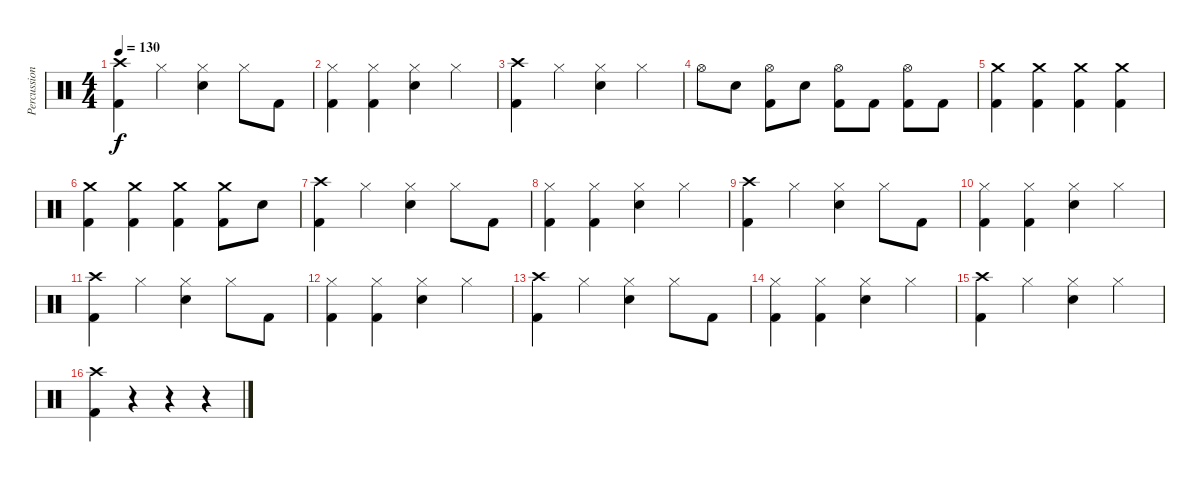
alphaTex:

\track ("Percussion" "Percussion") {instrument percussion}
\staff {score}
\articulation defaults
\ts (4 4)
\tempo 130
\clef neutral
\ks c
("Crash high (hit)" "Kick (hit) 2").4{dy f} "Hi-Hat (closed)".4 ("Hi-Hat (closed)" "Snare (hit) 2").4 "Hi-Hat (closed)".8 "Kick (hit) 2".8 |
("Hi-Hat (closed)" "Kick (hit) 2").4 ("Hi-Hat (closed)" "Kick (hit) 2").4 ("Hi-Hat (closed)" "Snare (hit) 2").4 "Hi-Hat (closed)".4 |
("Kick (hit) 2" "Crash high (hit)").4 "Hi-Hat (closed)".4 ("Hi-Hat (closed)" "Snare (hit) 2").4 "Hi-Hat (closed)".4 |
"Hi-Hat (open)".8 "Snare (hit) 2".8 ("Hi-Hat (open)" "Kick (hit) 2").8 "Snare (hit) 2".8 ("Hi-Hat (open)" "Kick (hit) 2").8 "Kick (hit) 2".8 ("Kick (hit) 2" "Hi-Hat (open)").8 "Kick (hit) 2".8 |
("Crash medium (hit)" "Kick (hit) 2").4 ("Crash medium (hit)" "Kick (hit) 2").4 ("Crash medium (hit)" "Kick (hit) 2").4 ("Crash medium (hit)" "Kick (hit) 2").4 |
("Crash medium (hit)" "Kick (hit) 2").4 ("Crash medium (hit)" "Kick (hit) 2").4 ("Crash medium (hit)" "Kick (hit) 2").4 ("Crash medium (hit)" "Kick (hit) 2").8 "Snare (hit) 2".8 |
("Crash high (hit)" "Kick (hit) 2").4 "Hi-Hat (closed)".4 ("Hi-Hat (closed)" "Snare (hit) 2").4 "Hi-Hat (closed)".8 "Kick (hit) 2".8 |
("Hi-Hat (closed)" "Kick (hit) 2").4 ("Hi-Hat (closed)" "Kick (hit) 2").4 ("Hi-Hat (closed)" "Snare (hit) 2").4 "Hi-Hat (closed)".4 |
("Crash high (hit)" "Kick (hit) 2").4 "Hi-Hat (closed)".4 ("Hi-Hat (closed)" "Snare (hit) 2").4 "Hi-Hat (closed)".8 "Kick (hit) 2".8 |
("Hi-Hat (closed)" "Kick (hit) 2").4 ("Hi-Hat (closed)" "Kick (hit) 2").4 ("Hi-Hat (closed)" "Snare (hit) 2").4 "Hi-Hat (closed)".4 |
("Crash high (hit)" "Kick (hit) 2").4 "Hi-Hat (closed)".4 ("Hi-Hat (closed)" "Snare (hit) 2").4 "Hi-Hat (closed)".8 "Kick (hit) 2".8 |
("Hi-Hat (closed)" "Kick (hit) 2").4 ("Hi-Hat (closed)" "Kick (hit) 2").4 ("Hi-Hat (closed)" "Snare (hit) 2").4 "Hi-Hat (closed)".4 |
("Crash high (hit)" "Kick (hit) 2").4 "Hi-Hat (closed)".4 ("Hi-Hat (closed)" "Snare (hit) 2").4 "Hi-Hat (closed)".8 "Kick (hit) 2".8 |
("Hi-Hat (closed)" "Kick (hit) 2").4 ("Hi-Hat (closed)" "Kick (hit) 2").4 ("Hi-Hat (closed)" "Snare (hit) 2").4 "Hi-Hat (closed)".4 |
("Crash high (hit)" "Kick (hit) 2").4 "Hi-Hat (closed)".4 ("Hi-Hat (closed)" "Snare (hit) 2").4 "Hi-Hat (closed)".4 |
("Crash high (hit)" "Kick (hit) 2").4 r.4 r.4 r.4
